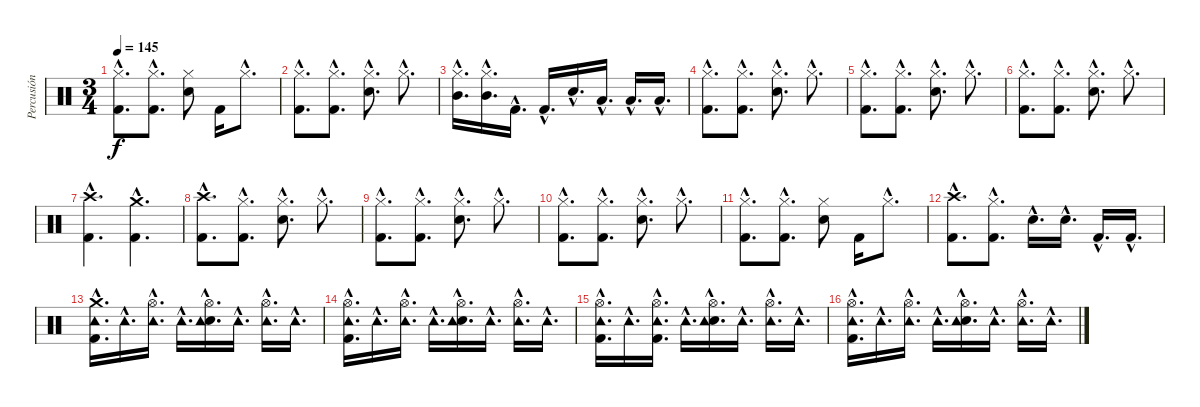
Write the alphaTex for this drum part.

\track ("Percusión" "Percusión") {instrument percussion}
\staff {score}
\articulation defaults
\ts (3 4)
\tempo 145
\clef neutral
\ks c
("Hi-Hat (closed)"{hac} "Kick (hit) 2"{hac}).8{d dy f} ("Hi-Hat (closed)"{hac} "Kick (hit) 2"{hac}).8{d} ("Hi-Hat (closed)" "Electric Snare (hit)").8 "Kick (hit) 2".16 "Hi-Hat (closed)"{hac}.8{d} |
("Hi-Hat (closed)"{hac} "Kick (hit) 2"{hac}).8{d} ("Hi-Hat (closed)"{hac} "Kick (hit) 2"{hac}).8{d} ("Hi-Hat (closed)"{hac} "Electric Snare (hit)"{hac}).8{d} "Hi-Hat (closed)"{hac}.8{d} |
("Hi-Hat (closed)"{hac} "Mid Tom (hit)"{hac}).16{d} ("Hi-Hat (closed)"{hac} "Mid Tom (hit)"{hac}).16{d} "Kick (hit) 2"{hac}.16{d} "Kick (hit) 2"{hac}.16{d} "Electric Snare (hit)"{hac}.16{d} "Low Tom (hit)"{hac}.16{d} "Low Tom (hit)"{hac}.16{d} "Low Floor Tom (hit)"{hac}.16{d} |
("Hi-Hat (closed)"{hac} "Kick (hit) 2"{hac}).8{d} ("Hi-Hat (closed)"{hac} "Kick (hit) 2"{hac}).8{d} ("Hi-Hat (closed)"{hac} "Electric Snare (hit)"{hac}).8{d} "Hi-Hat (closed)"{hac}.8{d} |
("Hi-Hat (closed)"{hac} "Kick (hit) 2"{hac}).8{d} ("Hi-Hat (closed)"{hac} "Kick (hit) 2"{hac}).8{d} ("Hi-Hat (closed)"{hac} "Electric Snare (hit)"{hac}).8{d} "Hi-Hat (closed)"{hac}.8{d} |
("Hi-Hat (closed)"{hac} "Kick (hit) 2"{hac}).8{d} ("Hi-Hat (closed)"{hac} "Kick (hit) 2"{hac}).8{d} ("Hi-Hat (closed)"{hac} "Electric Snare (hit)"{hac}).8{d} "Hi-Hat (closed)"{hac}.8{d} |
("Crash high (hit)"{hac} "Kick (hit) 2"{hac}).4{d} ("Crash medium (hit)"{hac} "Kick (hit) 2"{hac}).4{d} |
("Crash high (hit)"{hac} "Kick (hit) 2"{hac}).8{d} ("Hi-Hat (closed)"{hac} "Kick (hit) 2"{hac}).8{d} ("Hi-Hat (closed)"{hac} "Electric Snare (hit)"{hac}).8{d} "Hi-Hat (closed)"{hac}.8{d} |
("Hi-Hat (closed)"{hac} "Kick (hit) 2"{hac}).8{d} ("Hi-Hat (closed)"{hac} "Kick (hit) 2"{hac}).8{d} ("Hi-Hat (closed)"{hac} "Electric Snare (hit)"{hac}).8{d} "Hi-Hat (closed)"{hac}.8{d} |
("Hi-Hat (closed)"{hac} "Kick (hit) 2"{hac}).8{d} ("Hi-Hat (closed)"{hac} "Kick (hit) 2"{hac}).8{d} ("Hi-Hat (closed)"{hac} "Electric Snare (hit)"{hac}).8{d} "Hi-Hat (closed)"{hac}.8{d} |
("Hi-Hat (closed)"{hac} "Kick (hit) 2"{hac}).8{d} ("Hi-Hat (closed)"{hac} "Kick (hit) 2"{hac}).8{d} ("Hi-Hat (closed)" "Electric Snare (hit)").8 "Kick (hit) 2".16 "Hi-Hat (closed)"{hac}.8{d} |
("Crash high (hit)"{hac} "Kick (hit) 2"{hac}).8{d} ("Hi-Hat (closed)"{hac} "Kick (hit) 2"{hac}).8{d} "Electric Snare (hit)"{hac}.16{d} "Electric Snare (hit)"{hac}.16{d} "Kick (hit) 2"{hac}.16{d} "Kick (hit) 2"{hac}.16{d} |
("Kick (hit) 2"{hac} "Crash medium (hit)"{hac} "Tambourine (hit)"{hac}).16{d} "Tambourine (hit)"{hac}.16{d} ("Hi-Hat (open)"{hac} "Tambourine (hit)"{hac}).16{d} "Tambourine (hit)"{hac}.16{d} ("Hi-Hat (open)"{hac} "Electric Snare (hit)"{hac} "Tambourine (hit)"{hac}).16{d} "Tambourine (hit)"{hac}.16{d} ("Hi-Hat (open)"{hac} "Tambourine (hit)"{hac}).16{d} "Tambourine (hit)"{hac}.16{d} |
("Hi-Hat (open)"{hac} "Kick (hit) 2"{hac} "Tambourine (hit)"{hac}).16{d} "Tambourine (hit)"{hac}.16{d} ("Hi-Hat (open)"{hac} "Tambourine (hit)"{hac}).16{d} "Tambourine (hit)"{hac}.16{d} ("Hi-Hat (open)"{hac} "Electric Snare (hit)"{hac} "Tambourine (hit)"{hac}).16{d} "Tambourine (hit)"{hac}.16{d} ("Hi-Hat (open)"{hac} "Tambourine (hit)"{hac}).16{d} "Tambourine (hit)"{hac}.16{d} |
("Hi-Hat (open)"{hac} "Kick (hit) 2"{hac} "Tambourine (hit)"{hac}).16{d} "Tambourine (hit)"{hac}.16{d} ("Hi-Hat (open)"{hac} "Kick (hit) 2"{hac} "Tambourine (hit)"{hac}).16{d} "Tambourine (hit)"{hac}.16{d} ("Hi-Hat (open)"{hac} "Electric Snare (hit)"{hac} "Tambourine (hit)"{hac}).16{d} "Tambourine (hit)"{hac}.16{d} ("Hi-Hat (open)"{hac} "Tambourine (hit)"{hac}).16{d} "Tambourine (hit)"{hac}.16{d} |
("Hi-Hat (open)"{hac} "Kick (hit) 2"{hac} "Tambourine (hit)"{hac}).16{d} "Tambourine (hit)"{hac}.16{d} ("Hi-Hat (open)"{hac} "Tambourine (hit)"{hac}).16{d} "Tambourine (hit)"{hac}.16{d} ("Hi-Hat (open)"{hac} "Electric Snare (hit)"{hac} "Tambourine (hit)"{hac}).16{d} "Tambourine (hit)"{hac}.16{d} ("Hi-Hat (open)"{hac} "Tambourine (hit)"{hac}).16{d} "Tambourine (hit)"{hac}.16{d}
